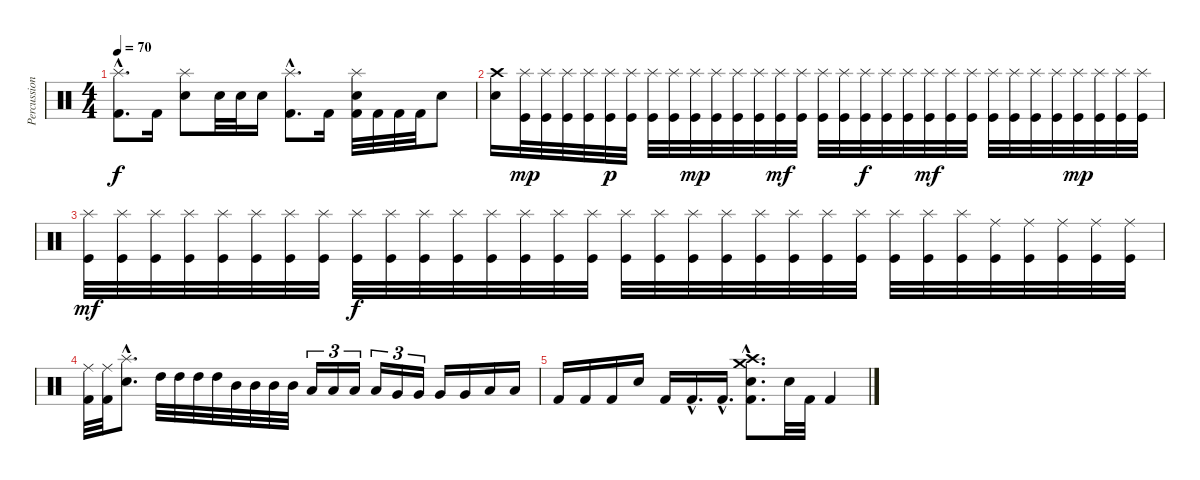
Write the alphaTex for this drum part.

\track ("Percussion" "Percussion") {instrument percussion}
\staff {score}
\articulation defaults
\ts (4 4)
\tempo 70
\clef neutral
\ks c
("Splash (hit)"{hac} "Kick (hit) 2"{hac}).8{d dy f} "Kick (hit) 2".16 ("Splash (hit)" "Snare (hit) 2").8 "Snare (hit) 2".32 "Snare (hit) 2".32 "Snare (hit) 2".16 ("Splash (hit)"{hac} "Kick (hit) 2"{hac}).8{d} "Kick (hit) 2".16 ("Splash (hit)" "Snare (hit) 2" "Kick (hit) 2").32 "Kick (hit) 2".32 "Kick (hit) 2".32 "Kick (hit) 2".32 "Snare (hit) 2".8 |
("Crash high (hit)" "Snare (hit) 2").16 ("Splash (hit)" "Kick (hit)").32{dy mp} ("Splash (hit)" "Kick (hit)").32 ("Splash (hit)" "Kick (hit)").32 ("Splash (hit)" "Kick (hit)").32 ("Splash (hit)" "Kick (hit)").32{dy p} ("Splash (hit)" "Kick (hit)").32 ("Splash (hit)" "Kick (hit)").32 ("Splash (hit)" "Kick (hit)").32 ("Splash (hit)" "Kick (hit)").32{dy mp} ("Splash (hit)" "Kick (hit)").32 ("Splash (hit)" "Kick (hit)").32 ("Splash (hit)" "Kick (hit)").32 ("Splash (hit)" "Kick (hit)").32{dy mf} ("Splash (hit)" "Kick (hit)").32 ("Splash (hit)" "Kick (hit)").32 ("Splash (hit)" "Kick (hit)").32 ("Splash (hit)" "Kick (hit)").32{dy f} ("Splash (hit)" "Kick (hit)").32 ("Splash (hit)" "Kick (hit)").32 ("Splash (hit)" "Kick (hit)").32{dy mf} ("Splash (hit)" "Kick (hit)").32 ("Splash (hit)" "Kick (hit)").32 ("Splash (hit)" "Kick (hit)").32 ("Splash (hit)" "Kick (hit)").32 ("Splash (hit)" "Kick (hit)").32 ("Splash (hit)" "Kick (hit)").32 ("Splash (hit)" "Kick (hit)").32{dy mp} ("Splash (hit)" "Kick (hit)").32 ("Splash (hit)" "Kick (hit)").32 ("Splash (hit)" "Kick (hit)").32 |
("Splash (hit)" "Kick (hit)").32{dy mf} ("Splash (hit)" "Kick (hit)").32 ("Splash (hit)" "Kick (hit)").32 ("Splash (hit)" "Kick (hit)").32 ("Splash (hit)" "Kick (hit)").32 ("Splash (hit)" "Kick (hit)").32 ("Splash (hit)" "Kick (hit)").32 ("Splash (hit)" "Kick (hit)").32 ("Splash (hit)" "Kick (hit)").32{dy f} ("Splash (hit)" "Kick (hit)").32 ("Splash (hit)" "Kick (hit)").32 ("Splash (hit)" "Kick (hit)").32 ("Splash (hit)" "Kick (hit)").32 ("Splash (hit)" "Kick (hit)").32 ("Splash (hit)" "Kick (hit)").32 ("Splash (hit)" "Kick (hit)").32 ("Splash (hit)" "Kick (hit)").32 ("Splash (hit)" "Kick (hit)").32 ("Splash (hit)" "Kick (hit)").32 ("Splash (hit)" "Kick (hit)").32 ("Splash (hit)" "Kick (hit)").32 ("Splash (hit)" "Kick (hit)").32 ("Splash (hit)" "Kick (hit)").32 ("Splash (hit)" "Kick (hit)").32 ("Splash (hit)" "Kick (hit)").32 ("Splash (hit)" "Kick (hit)").32 ("Splash (hit)" "Kick (hit)").32 ("Ride (middle)" "Kick (hit)").32 ("Ride (middle)" "Kick (hit)").32 ("Ride (middle)" "Kick (hit)").32 ("Ride (middle)" "Kick (hit)").32 ("Ride (middle)" "Kick (hit)").32 |
("Ride (middle)" "Kick (hit) 2").32 ("Ride (middle)" "Kick (hit) 2").32 ("Splash (hit)"{hac} "Snare (hit) 2"{hac}).8{d} "High Tom (hit)".32 "High Tom (hit)".32 "High Tom (hit)".32 "High Tom (hit)".32 "Mid Tom (hit)".32 "Mid Tom (hit)".32 "Mid Tom (hit)".32 "Mid Tom (hit)".32 "Low Tom (hit)".16{tu (3 2)} "Low Tom (hit)".16{tu (3 2)} "Low Tom (hit)".16{tu (3 2)} "Low Tom (hit)".16{tu (3 2)} "Very Low Tom (hit)".16{tu (3 2)} "Very Low Tom (hit)".16{tu (3 2)} "Very Low Tom (hit)".16 "Very Low Tom (hit)".16 "Low Floor Tom (hit)".16 "Low Floor Tom (hit)".16 |
"Kick (hit) 2".16 "Kick (hit) 2".16 "Kick (hit) 2".16 "Snare (hit) 2".16 "Kick (hit) 2".16 "Kick (hit) 2"{hac}.16{d} "Kick (hit) 2"{hac}.16{d} ("Crash medium (hit)"{hac} "Kick (hit) 2"{hac} "Crash high (hit)"{hac} "Snare (hit) 2"{hac}).8{d} "Snare (hit) 2".32 "Kick (hit) 2".32 "Kick (hit) 2".4
